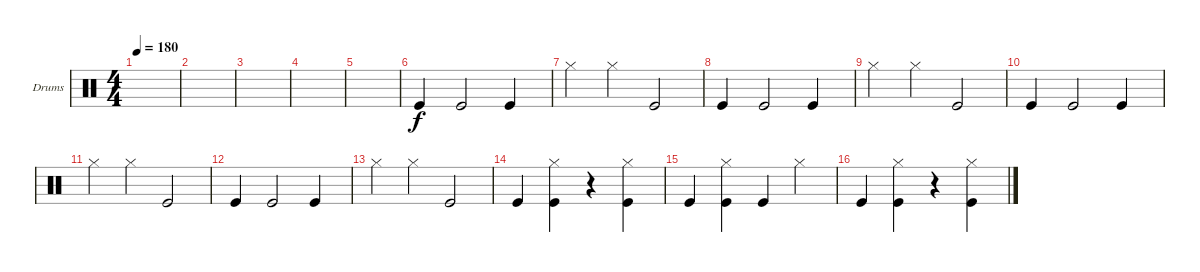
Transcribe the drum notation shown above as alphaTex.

\defaultSystemsLayout 4
\bracketExtendMode groupsimilarinstruments
\firstSystemTrackNameOrientation horizontal
\otherSystemsTrackNameOrientation horizontal
\track ("Drumkit" "Drums") {instrument percussion}
\staff {score}
\articulation defaults
\ts (4 4)
\tempo 180
\clef neutral
\ks c
|
|
|
|
|
"Kick (hit)".4 "Kick (hit)".2 "Kick (hit)".4 |
"Hi-Hat (closed)".4 "Hi-Hat (closed)".4 "Kick (hit)".2 |
"Kick (hit)".4 "Kick (hit)".2 "Kick (hit)".4 |
"Hi-Hat (closed)".4 "Hi-Hat (closed)".4 "Kick (hit)".2 |
"Kick (hit)".4 "Kick (hit)".2 "Kick (hit)".4 |
"Hi-Hat (closed)".4 "Hi-Hat (closed)".4 "Kick (hit)".2 |
"Kick (hit)".4 "Kick (hit)".2 "Kick (hit)".4 |
"Hi-Hat (closed)".4 "Hi-Hat (closed)".4 "Kick (hit)".2 |
"Kick (hit)".4 ("Kick (hit)" "Hi-Hat (closed)").4 r.4 ("Kick (hit)" "Hi-Hat (closed)").4 |
"Kick (hit)".4 ("Kick (hit)" "Hi-Hat (closed)").4 "Kick (hit)".4 "Hi-Hat (closed)".4 |
"Kick (hit)".4 ("Kick (hit)" "Hi-Hat (closed)").4 r.4 ("Kick (hit)" "Hi-Hat (closed)").4
